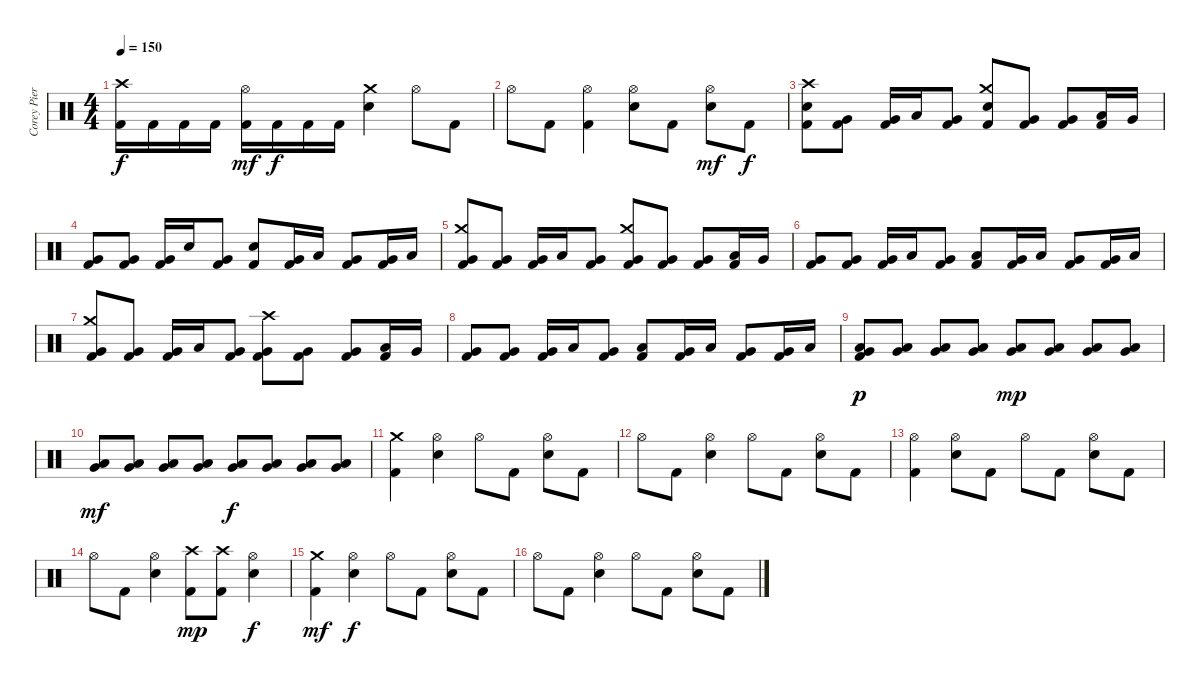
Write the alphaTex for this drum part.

\track ("Corey Pierce" "Corey Pier") {instrument percussion}
\staff {score}
\articulation defaults
\ts (4 4)
\tempo 150
\clef neutral
\ks c
("Crash high (hit)" "Kick (hit) 2").16{dy f} "Kick (hit) 2".16 "Kick (hit) 2".16 "Kick (hit) 2".16 ("Hi-Hat (open)" "Kick (hit) 2").16{dy mf} "Kick (hit) 2".16{dy f} "Kick (hit) 2".16 "Kick (hit) 2".16 ("Crash medium (hit)" "Electric Snare (hit)").4 "Hi-Hat (open)".8 "Kick (hit) 2".8 |
"Hi-Hat (open)".8 "Kick (hit) 2".8 ("Hi-Hat (open)" "Kick (hit) 2").4 ("Hi-Hat (open)" "Electric Snare (hit)").8 "Kick (hit) 2".8 ("Hi-Hat (open)" "Electric Snare (hit)").8{dy mf} "Kick (hit) 2".8{dy f} |
("Crash high (hit)" "Electric Snare (hit)" "Kick (hit) 2").8 ("Very Low Tom (hit)" "Kick (hit) 2").8 ("Very Low Tom (hit)" "Kick (hit) 2").16 "Low Tom (hit)".16 ("Very Low Tom (hit)" "Kick (hit) 2").8 ("Crash medium (hit)" "Electric Snare (hit)" "Kick (hit) 2").8 ("Very Low Tom (hit)" "Kick (hit) 2").8 ("Very Low Tom (hit)" "Kick (hit) 2").8 ("Low Tom (hit)" "Kick (hit) 2").16 "Very Low Tom (hit)".16 |
("Very Low Tom (hit)" "Kick (hit) 2").8 ("Very Low Tom (hit)" "Kick (hit) 2").8 ("Very Low Tom (hit)" "Kick (hit) 2").16 "Electric Snare (hit)".16 ("Very Low Tom (hit)" "Kick (hit) 2").8 ("Electric Snare (hit)" "Kick (hit) 2").8 ("Very Low Tom (hit)" "Kick (hit) 2").16 "Low Tom (hit)".16 ("Very Low Tom (hit)" "Kick (hit) 2").8 ("Very Low Tom (hit)" "Kick (hit) 2").16 "Low Floor Tom (hit)".16 |
("Crash medium (hit)" "Very Low Tom (hit)" "Kick (hit) 2").8 ("Very Low Tom (hit)" "Kick (hit) 2").8 ("Very Low Tom (hit)" "Kick (hit) 2").16 "Low Tom (hit)".16 ("Very Low Tom (hit)" "Kick (hit) 2").8 ("Crash medium (hit)" "Very Low Tom (hit)" "Kick (hit) 2").8 ("Very Low Tom (hit)" "Kick (hit) 2").8 ("Very Low Tom (hit)" "Kick (hit) 2").8 ("Low Tom (hit)" "Kick (hit) 2").16 "Very Low Tom (hit)".16 |
("Very Low Tom (hit)" "Kick (hit) 2").8 ("Very Low Tom (hit)" "Kick (hit) 2").8 ("Very Low Tom (hit)" "Kick (hit) 2").16 "Low Tom (hit)".16 ("Very Low Tom (hit)" "Kick (hit) 2").8 ("Low Tom (hit)" "Kick (hit) 2").8 ("Very Low Tom (hit)" "Kick (hit) 2").16 "Low Tom (hit)".16 ("Very Low Tom (hit)" "Kick (hit) 2").8 ("Very Low Tom (hit)" "Kick (hit) 2").16 "Low Floor Tom (hit)".16 |
("Crash medium (hit)" "Very Low Tom (hit)" "Kick (hit) 2").8 ("Very Low Tom (hit)" "Kick (hit) 2").8 ("Very Low Tom (hit)" "Kick (hit) 2").16 "Low Tom (hit)".16 ("Very Low Tom (hit)" "Kick (hit) 2").8 ("Crash high (hit)" "Very Low Tom (hit)" "Kick (hit) 2").8 ("Very Low Tom (hit)" "Kick (hit) 2").8 ("Very Low Tom (hit)" "Kick (hit) 2").8 ("Low Tom (hit)" "Kick (hit) 2").16 "Very Low Tom (hit)".16 |
("Very Low Tom (hit)" "Kick (hit) 2").8 ("Very Low Tom (hit)" "Kick (hit) 2").8 ("Very Low Tom (hit)" "Kick (hit) 2").16 "Low Tom (hit)".16 ("Very Low Tom (hit)" "Kick (hit) 2").8 ("Low Tom (hit)" "Kick (hit) 2").8 ("Very Low Tom (hit)" "Kick (hit) 2").16 "Low Tom (hit)".16 ("Very Low Tom (hit)" "Kick (hit) 2").8 ("Very Low Tom (hit)" "Kick (hit) 2").16 "Low Floor Tom (hit)".16 |
("Low Tom (hit)" "Very Low Tom (hit)" "Kick (hit) 2").8{dy p} ("Low Tom (hit)" "Very Low Tom (hit)").8 ("Low Tom (hit)" "Very Low Tom (hit)").8 ("Low Tom (hit)" "Very Low Tom (hit)").8 ("Low Tom (hit)" "Very Low Tom (hit)").8{dy mp} ("Low Tom (hit)" "Very Low Tom (hit)").8 ("Low Tom (hit)" "Very Low Tom (hit)").8 ("Low Tom (hit)" "Very Low Tom (hit)").8 |
("Low Tom (hit)" "Very Low Tom (hit)").8{dy mf} ("Low Tom (hit)" "Very Low Tom (hit)").8 ("Low Tom (hit)" "Very Low Tom (hit)").8 ("Low Tom (hit)" "Very Low Tom (hit)").8 ("Low Tom (hit)" "Very Low Tom (hit)").8{dy f} ("Low Tom (hit)" "Very Low Tom (hit)").8 ("Low Tom (hit)" "Very Low Tom (hit)").8 ("Low Tom (hit)" "Very Low Tom (hit)").8 |
("Crash medium (hit)" "Kick (hit) 2").4 ("Hi-Hat (open)" "Electric Snare (hit)").4 "Hi-Hat (open)".8 "Kick (hit) 2".8 ("Hi-Hat (open)" "Electric Snare (hit)").8 "Kick (hit) 2".8 |
"Hi-Hat (open)".8 "Kick (hit) 2".8 ("Hi-Hat (open)" "Electric Snare (hit)").4 "Hi-Hat (open)".8 "Kick (hit) 2".8 ("Hi-Hat (open)" "Electric Snare (hit)").8 "Kick (hit) 2".8 |
("Hi-Hat (open)" "Kick (hit) 2").4 ("Hi-Hat (open)" "Electric Snare (hit)").8 "Kick (hit) 2".8 "Hi-Hat (open)".8 "Kick (hit) 2".8 ("Hi-Hat (open)" "Electric Snare (hit)").8 "Kick (hit) 2".8 |
"Hi-Hat (open)".8 "Kick (hit) 2".8 ("Hi-Hat (open)" "Electric Snare (hit)").4 ("Crash high (hit)" "Kick (hit) 2").8{dy mp} ("Crash high (hit)" "Kick (hit) 2").8 ("Hi-Hat (open)" "Electric Snare (hit)").4{dy f} |
("Crash medium (hit)" "Kick (hit) 2").4{dy mf} ("Hi-Hat (open)" "Electric Snare (hit)").4{dy f} "Hi-Hat (open)".8 "Kick (hit) 2".8 ("Hi-Hat (open)" "Electric Snare (hit)").8 "Kick (hit) 2".8 |
"Hi-Hat (open)".8 "Kick (hit) 2".8 ("Hi-Hat (open)" "Electric Snare (hit)").4 "Hi-Hat (open)".8 "Kick (hit) 2".8 ("Hi-Hat (open)" "Electric Snare (hit)").8 "Kick (hit) 2".8
